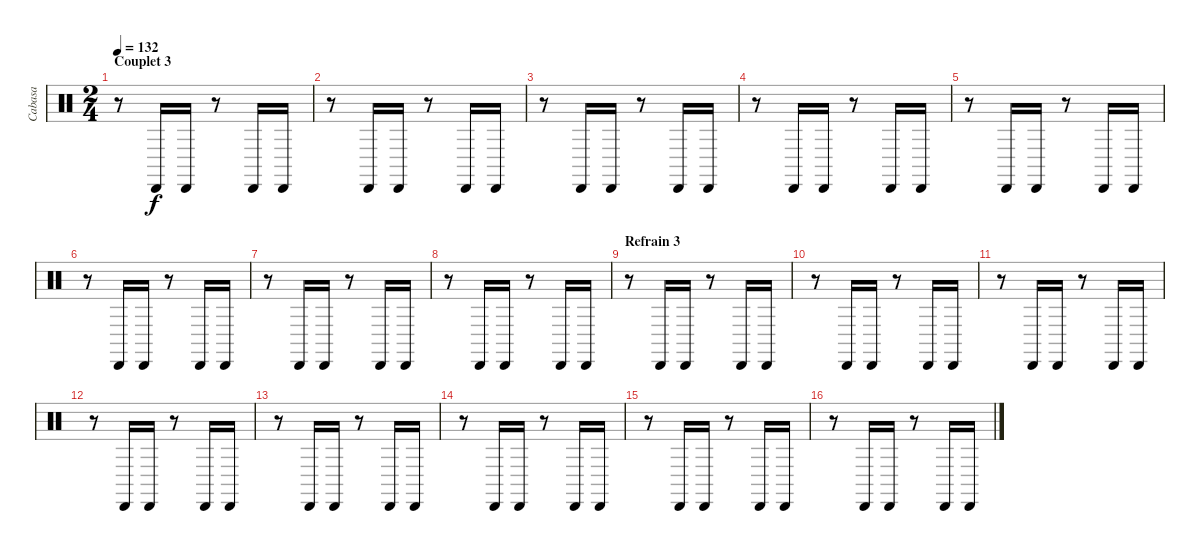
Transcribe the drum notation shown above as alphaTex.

\track ("Cabasa" "Cabasa") {instrument percussion}
\staff {score}
\articulation defaults
\ts (2 4)
\section ("" "Couplet 3")
\tempo 132
\clef neutral
\ks c
r.8{dy f} "Cabasa (hit)".16 "Cabasa (hit)".16 r.8 "Cabasa (hit)".16 "Cabasa (hit)".16 |
r.8 "Cabasa (hit)".16 "Cabasa (hit)".16 r.8 "Cabasa (hit)".16 "Cabasa (hit)".16 |
r.8 "Cabasa (hit)".16 "Cabasa (hit)".16 r.8 "Cabasa (hit)".16 "Cabasa (hit)".16 |
r.8 "Cabasa (hit)".16 "Cabasa (hit)".16 r.8 "Cabasa (hit)".16 "Cabasa (hit)".16 |
r.8 "Cabasa (hit)".16 "Cabasa (hit)".16 r.8 "Cabasa (hit)".16 "Cabasa (hit)".16 |
r.8 "Cabasa (hit)".16 "Cabasa (hit)".16 r.8 "Cabasa (hit)".16 "Cabasa (hit)".16 |
r.8 "Cabasa (hit)".16 "Cabasa (hit)".16 r.8 "Cabasa (hit)".16 "Cabasa (hit)".16 |
r.8 "Cabasa (hit)".16 "Cabasa (hit)".16 r.8 "Cabasa (hit)".16 "Cabasa (hit)".16 |
\section ("" "Refrain 3")
r.8 "Cabasa (hit)".16 "Cabasa (hit)".16 r.8 "Cabasa (hit)".16 "Cabasa (hit)".16 |
r.8 "Cabasa (hit)".16 "Cabasa (hit)".16 r.8 "Cabasa (hit)".16 "Cabasa (hit)".16 |
r.8 "Cabasa (hit)".16 "Cabasa (hit)".16 r.8 "Cabasa (hit)".16 "Cabasa (hit)".16 |
r.8 "Cabasa (hit)".16 "Cabasa (hit)".16 r.8 "Cabasa (hit)".16 "Cabasa (hit)".16 |
r.8 "Cabasa (hit)".16 "Cabasa (hit)".16 r.8 "Cabasa (hit)".16 "Cabasa (hit)".16 |
r.8 "Cabasa (hit)".16 "Cabasa (hit)".16 r.8 "Cabasa (hit)".16 "Cabasa (hit)".16 |
r.8 "Cabasa (hit)".16 "Cabasa (hit)".16 r.8 "Cabasa (hit)".16 "Cabasa (hit)".16 |
r.8 "Cabasa (hit)".16 "Cabasa (hit)".16 r.8 "Cabasa (hit)".16 "Cabasa (hit)".16
